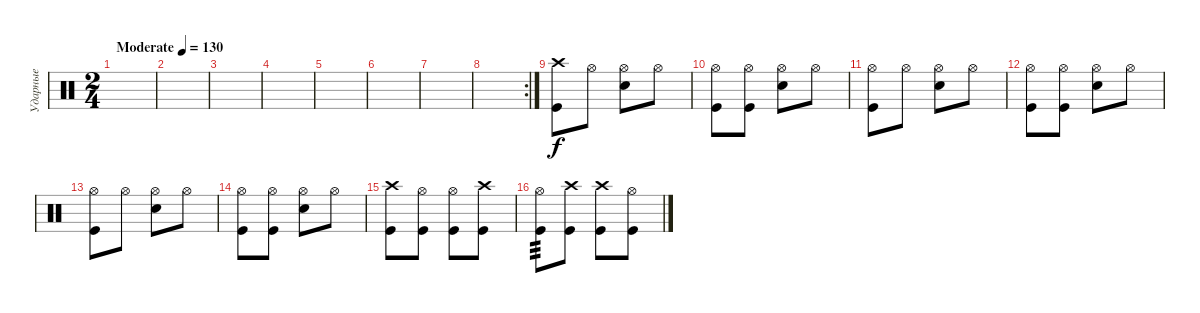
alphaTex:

\track ("Ударные" "Ударные") {instrument percussion}
\staff {score}
\articulation defaults
\ts (2 4)
\tempo (130 "Moderate")
\clef neutral
\ks c
|
|
|
|
|
|
|
\rc 2
|
("Crash high (hit)" "Kick (hit)").8 "Hi-Hat (open)".8 ("Hi-Hat (open)" "Snare (hit) 2").8 "Hi-Hat (open)".8 |
("Hi-Hat (open)" "Kick (hit)").8 ("Hi-Hat (open)" "Kick (hit)").8 ("Hi-Hat (open)" "Snare (hit) 2").8 "Hi-Hat (open)".8 |
("Hi-Hat (open)" "Kick (hit)").8 "Hi-Hat (open)".8 ("Hi-Hat (open)" "Snare (hit) 2").8 "Hi-Hat (open)".8 |
("Hi-Hat (open)" "Kick (hit)").8 ("Hi-Hat (open)" "Kick (hit)").8 ("Hi-Hat (open)" "Snare (hit) 2").8 "Hi-Hat (open)".8 |
("Hi-Hat (open)" "Kick (hit)").8 "Hi-Hat (open)".8 ("Hi-Hat (open)" "Snare (hit) 2").8 "Hi-Hat (open)".8 |
("Hi-Hat (open)" "Kick (hit)").8 ("Hi-Hat (open)" "Kick (hit)").8 ("Hi-Hat (open)" "Snare (hit) 2").8 "Hi-Hat (open)".8 |
("Crash high (hit)" "Kick (hit)").8 ("Hi-Hat (open)" "Kick (hit)").8 ("Hi-Hat (open)" "Kick (hit)").8 ("Crash high (hit)" "Kick (hit)").8 |
("Hi-Hat (open)" "Kick (hit)").8{tp 3} ("Crash high (hit)" "Kick (hit)").8 ("Crash high (hit)" "Kick (hit)").8 ("Hi-Hat (open)" "Kick (hit)").8
